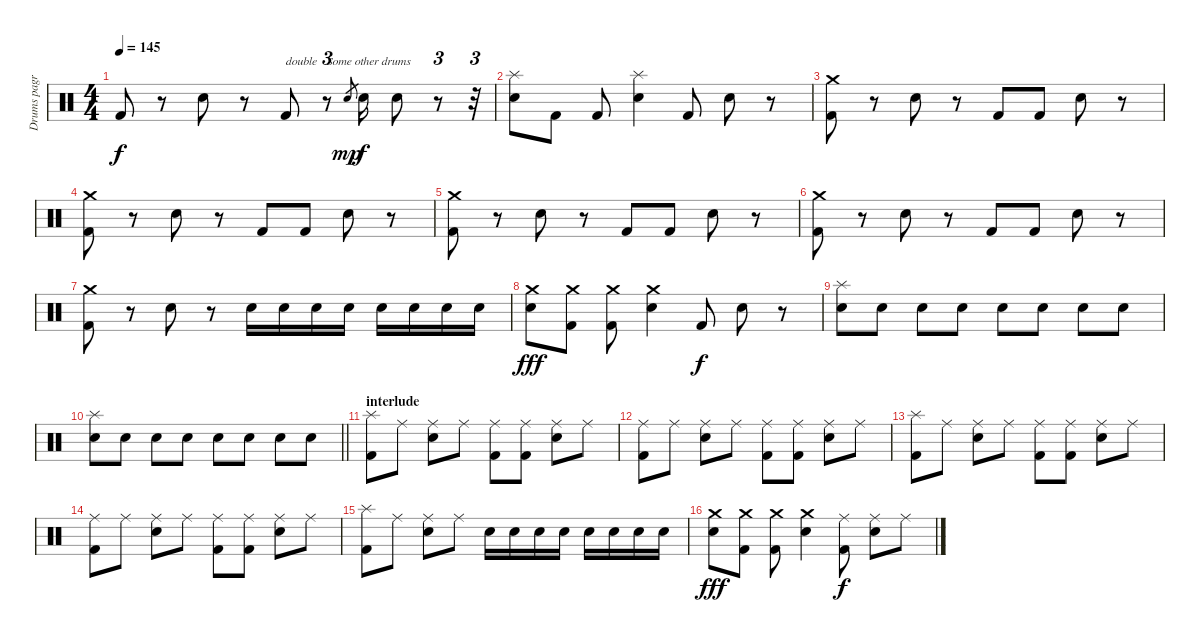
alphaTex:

\track ("Drums pagr" "Drums pagr") {instrument percussion}
\staff {score}
\articulation defaults
\ts (4 4)
\tempo 145
\clef neutral
\ks c "Kick (hit) 2".8{dy f}
r.8 "Snare (hit) 2".8 r.8 "Kick (hit) 2".8{txt "double"} r.8{tu (3 2) txt "Some other drums"} "Snare (hit) 2".8{gr dy mp} "Snare (hit) 2".16{dy f} "Snare (hit) 2".8 r.8{tu (3 2)} r.32{tu (3 2)} |
("Splash (hit)" "Snare (hit) 2").8 "Kick (hit) 2".8 "Kick (hit) 2".8 ("Splash (hit)" "Snare (hit) 2").4 "Kick (hit) 2".8 "Snare (hit) 2".8 r.8 |
("Crash medium (hit)" "Kick (hit) 2").8 r.8 "Snare (hit) 2".8 r.8 "Kick (hit) 2".8 "Kick (hit) 2".8 "Snare (hit) 2".8 r.8 |
("Crash medium (hit)" "Kick (hit) 2").8 r.8 "Snare (hit) 2".8 r.8 "Kick (hit) 2".8 "Kick (hit) 2".8 "Snare (hit) 2".8 r.8 |
("Crash medium (hit)" "Kick (hit) 2").8 r.8 "Snare (hit) 2".8 r.8 "Kick (hit) 2".8 "Kick (hit) 2".8 "Snare (hit) 2".8 r.8 |
("Crash medium (hit)" "Kick (hit) 2").8 r.8 "Snare (hit) 2".8 r.8 "Kick (hit) 2".8 "Kick (hit) 2".8 "Snare (hit) 2".8 r.8 |
("Crash medium (hit)" "Kick (hit) 2").8 r.8 "Snare (hit) 2".8 r.8 "Snare (hit) 2".16 "Snare (hit) 2".16 "Snare (hit) 2".16 "Snare (hit) 2".16 "Snare (hit) 2".16 "Snare (hit) 2".16 "Snare (hit) 2".16 "Snare (hit) 2".16 |
("Crash medium (hit)" "Snare (hit) 2").8{dy fff} ("Crash medium (hit)" "Kick (hit) 2").8 ("Crash medium (hit)" "Kick (hit) 2").8 ("Crash medium (hit)" "Snare (hit) 2").4 "Kick (hit) 2".8{dy f} "Snare (hit) 2".8 r.8 |
("Splash (hit)" "Snare (hit) 2").8 "Snare (hit) 2".8 "Snare (hit) 2".8 "Snare (hit) 2".8 "Snare (hit) 2".8 "Snare (hit) 2".8 "Snare (hit) 2".8 "Snare (hit) 2".8 |
\barLineRight lightlight
("Splash (hit)" "Snare (hit) 2").8 "Snare (hit) 2".8 "Snare (hit) 2".8 "Snare (hit) 2".8 "Snare (hit) 2".8 "Snare (hit) 2".8 "Snare (hit) 2".8 "Snare (hit) 2".8 |
\section ("" "interlude")
("Splash (hit)" "Kick (hit) 2").8 "Ride (middle)".8 ("Ride (middle)" "Snare (hit) 2").8 "Ride (middle)".8 ("Ride (middle)" "Kick (hit) 2").8 ("Ride (middle)" "Kick (hit) 2").8 ("Ride (middle)" "Snare (hit) 2").8 "Ride (middle)".8 |
("Ride (middle)" "Kick (hit) 2").8 "Ride (middle)".8 ("Ride (middle)" "Snare (hit) 2").8 "Ride (middle)".8 ("Ride (middle)" "Kick (hit) 2").8 ("Ride (middle)" "Kick (hit) 2").8 ("Ride (middle)" "Snare (hit) 2").8 "Ride (middle)".8 |
("Splash (hit)" "Kick (hit) 2").8 "Ride (middle)".8 ("Ride (middle)" "Snare (hit) 2").8 "Ride (middle)".8 ("Ride (middle)" "Kick (hit) 2").8 ("Ride (middle)" "Kick (hit) 2").8 ("Ride (middle)" "Snare (hit) 2").8 "Ride (middle)".8 |
("Ride (middle)" "Kick (hit) 2").8 "Ride (middle)".8 ("Ride (middle)" "Snare (hit) 2").8 "Ride (middle)".8 ("Ride (middle)" "Kick (hit) 2").8 ("Ride (middle)" "Kick (hit) 2").8 ("Ride (middle)" "Snare (hit) 2").8 "Ride (middle)".8 |
("Splash (hit)" "Kick (hit) 2").8 "Ride (middle)".8 ("Ride (middle)" "Snare (hit) 2").8 "Ride (middle)".8 "Snare (hit) 2".16 "Snare (hit) 2".16 "Snare (hit) 2".16 "Snare (hit) 2".16 "Snare (hit) 2".16 "Snare (hit) 2".16 "Snare (hit) 2".16 "Snare (hit) 2".16 |
("Crash medium (hit)" "Snare (hit) 2").8{dy fff} ("Crash medium (hit)" "Kick (hit) 2").8 ("Crash medium (hit)" "Kick (hit) 2").8 ("Crash medium (hit)" "Snare (hit) 2").4 ("Ride (middle)" "Kick (hit) 2").8{dy f} ("Ride (middle)" "Snare (hit) 2").8 "Ride (middle)".8
